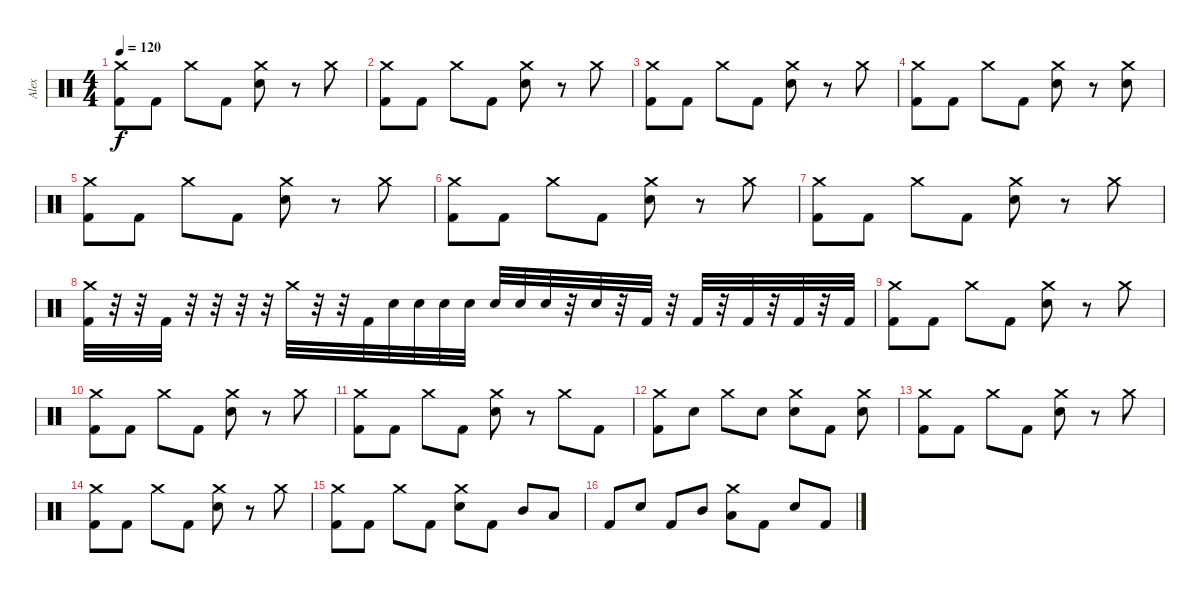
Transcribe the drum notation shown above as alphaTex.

\track ("Alex" "Alex") {instrument percussion}
\staff {score}
\articulation defaults
\ts (4 4)
\tempo 120
\clef neutral
\ks c
("Crash medium (hit)" "Kick (hit) 2").8{dy f} "Kick (hit) 2".8 "Crash medium (hit)".8 "Kick (hit) 2".8 ("Crash medium (hit)" "Snare (hit) 2").8 r.8 "Crash medium (hit)".8 |
("Crash medium (hit)" "Kick (hit) 2").8 "Kick (hit) 2".8 "Crash medium (hit)".8 "Kick (hit) 2".8 ("Crash medium (hit)" "Snare (hit) 2").8 r.8 "Crash medium (hit)".8 |
("Crash medium (hit)" "Kick (hit) 2").8 "Kick (hit) 2".8 "Crash medium (hit)".8 "Kick (hit) 2".8 ("Crash medium (hit)" "Snare (hit) 2").8 r.8 "Crash medium (hit)".8 |
("Crash medium (hit)" "Kick (hit) 2").8 "Kick (hit) 2".8 "Crash medium (hit)".8 "Kick (hit) 2".8 ("Crash medium (hit)" "Snare (hit) 2").8 r.8 ("Crash medium (hit)" "Snare (hit) 2").8 |
("Crash medium (hit)" "Kick (hit) 2").8 "Kick (hit) 2".8 "Crash medium (hit)".8 "Kick (hit) 2".8 ("Crash medium (hit)" "Snare (hit) 2").8 r.8 "Crash medium (hit)".8 |
("Crash medium (hit)" "Kick (hit) 2").8 "Kick (hit) 2".8 "Crash medium (hit)".8 "Kick (hit) 2".8 ("Crash medium (hit)" "Snare (hit) 2").8 r.8 "Crash medium (hit)".8 |
("Crash medium (hit)" "Kick (hit) 2").8 "Kick (hit) 2".8 "Crash medium (hit)".8 "Kick (hit) 2".8 ("Crash medium (hit)" "Snare (hit) 2").8 r.8 "Crash medium (hit)".8 |
("Crash medium (hit)" "Kick (hit) 2").32 r.32 r.32 "Kick (hit) 2".32 r.32 r.32 r.32 r.32 "Crash medium (hit)".32 r.32 r.32 "Kick (hit) 2".32 "Snare (hit) 2".32 "Snare (hit) 2".32 "Snare (hit) 2".32 "Snare (hit) 2".32 "Snare (hit) 2".32 "Snare (hit) 2".32 "Snare (hit) 2".32 r.32 "Snare (hit) 2".32 r.32 "Kick (hit) 2".32 r.32 "Kick (hit) 2".32 r.32 "Kick (hit) 2".32 r.32 "Kick (hit) 2".32 r.32 "Kick (hit) 2".32 |
("Crash medium (hit)" "Kick (hit) 2").8 "Kick (hit) 2".8 "Crash medium (hit)".8 "Kick (hit) 2".8 ("Crash medium (hit)" "Snare (hit) 2").8 r.8 "Crash medium (hit)".8 |
("Crash medium (hit)" "Kick (hit) 2").8 "Kick (hit) 2".8 "Crash medium (hit)".8 "Kick (hit) 2".8 ("Crash medium (hit)" "Snare (hit) 2").8 r.8 "Crash medium (hit)".8 |
("Crash medium (hit)" "Kick (hit) 2").8 "Kick (hit) 2".8 "Crash medium (hit)".8 "Kick (hit) 2".8 ("Crash medium (hit)" "Snare (hit) 2").8 r.8 "Crash medium (hit)".8 "Kick (hit) 2".8 |
("Crash medium (hit)" "Kick (hit) 2").8 "Snare (hit) 2".8 "Crash medium (hit)".8 "Snare (hit) 2".8 ("Crash medium (hit)" "Snare (hit) 2").8 "Kick (hit) 2".8 ("Crash medium (hit)" "Snare (hit) 2").8 |
("Crash medium (hit)" "Kick (hit) 2").8 "Kick (hit) 2".8 "Crash medium (hit)".8 "Kick (hit) 2".8 ("Crash medium (hit)" "Snare (hit) 2").8 r.8 "Crash medium (hit)".8 |
("Crash medium (hit)" "Kick (hit) 2").8 "Kick (hit) 2".8 "Crash medium (hit)".8 "Kick (hit) 2".8 ("Crash medium (hit)" "Snare (hit) 2").8 r.8 "Crash medium (hit)".8 |
("Crash medium (hit)" "Kick (hit) 2").8 "Kick (hit) 2".8 "Crash medium (hit)".8 "Kick (hit) 2".8 ("Crash medium (hit)" "Snare (hit) 2").8 "Kick (hit) 2".8 "Mid Tom (hit)".8 "Low Tom (hit)".8 |
"Kick (hit) 2".8 "Snare (hit) 2".8 "Kick (hit) 2".8 "Mid Tom (hit)".8 ("Crash medium (hit)" "Low Tom (hit)").8 "Kick (hit) 2".8 "Snare (hit) 2".8 "Kick (hit) 2".8
